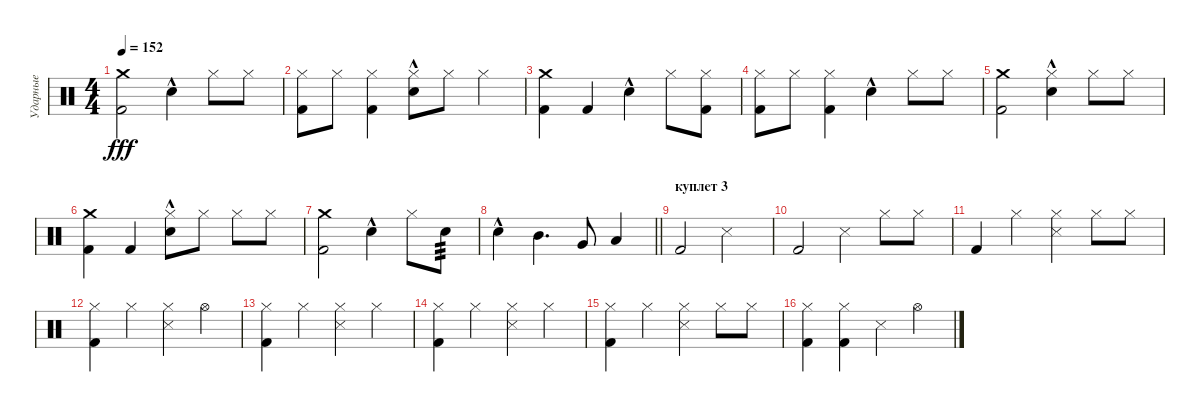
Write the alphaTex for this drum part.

\track ("Ударные" "Ударные") {instrument percussion}
\staff {score}
\articulation defaults
\ts (4 4)
\tempo 152
\clef neutral
\ks c
("Crash medium (hit)" "Kick (hit) 2").2{dy fff} "Electric Snare (hit)"{hac}.4 "Hi-Hat (closed)".8 "Hi-Hat (closed)".8 |
("Hi-Hat (closed)" "Kick (hit) 2").8 "Hi-Hat (closed)".8 ("Hi-Hat (closed)" "Kick (hit) 2").4 ("Hi-Hat (closed)" "Electric Snare (hit)"{hac}).8 "Hi-Hat (closed)".8 "Hi-Hat (closed)".4 |
("Crash medium (hit)" "Kick (hit) 2").4 "Kick (hit) 2".4 "Electric Snare (hit)"{hac}.4 "Hi-Hat (closed)".8 ("Hi-Hat (closed)" "Kick (hit) 2").8 |
("Hi-Hat (closed)" "Kick (hit) 2").8 "Hi-Hat (closed)".8 ("Hi-Hat (closed)" "Kick (hit) 2").4 "Electric Snare (hit)"{hac}.4 "Hi-Hat (closed)".8 "Hi-Hat (closed)".8 |
("Crash medium (hit)" "Kick (hit) 2").2 ("Hi-Hat (closed)" "Electric Snare (hit)"{hac}).4 "Hi-Hat (closed)".8 "Hi-Hat (closed)".8 |
("Crash medium (hit)" "Kick (hit) 2").4 "Kick (hit) 2".4 ("Hi-Hat (closed)" "Electric Snare (hit)"{hac}).8 "Hi-Hat (closed)".8 "Hi-Hat (closed)".8 "Hi-Hat (closed)".8 |
("Crash medium (hit)" "Kick (hit) 2").2 "Electric Snare (hit)"{hac}.4 "Hi-Hat (closed)".8 "Electric Snare (hit)".8{tp 3} |
\barLineRight lightlight "Electric Snare (hit)"{hac}.4 "Mid Tom (hit)".4{d} "Very Low Tom (hit)".8 "Low Floor Tom (hit)".4
|
\section ("" "куплет 3")
"Kick (hit) 2".2 "Snare (side stick) 3".2 |
"Kick (hit) 2".2 "Snare (side stick) 3".4 "Hi-Hat (closed)".8 "Hi-Hat (closed)".8 |
"Kick (hit) 2".4 "Hi-Hat (closed)".4 ("Hi-Hat (closed)" "Snare (side stick) 3").4 "Hi-Hat (closed)".8 "Hi-Hat (closed)".8 |
("Hi-Hat (closed)" "Kick (hit) 2").4 "Hi-Hat (closed)".4 ("Hi-Hat (closed)" "Snare (side stick) 3").4 "Hi-Hat (open)".4 |
("Hi-Hat (closed)" "Kick (hit) 2").4 "Hi-Hat (closed)".4 ("Hi-Hat (closed)" "Snare (side stick) 3").4 "Hi-Hat (closed)".4 |
("Hi-Hat (closed)" "Kick (hit) 2").4 "Hi-Hat (closed)".4 ("Hi-Hat (closed)" "Snare (side stick) 3").4 "Hi-Hat (closed)".4 |
("Hi-Hat (closed)" "Kick (hit) 2").4 "Hi-Hat (closed)".4 ("Hi-Hat (closed)" "Snare (side stick) 3").4 "Hi-Hat (closed)".8 "Hi-Hat (closed)".8 |
("Hi-Hat (closed)" "Kick (hit) 2").4 ("Hi-Hat (closed)" "Kick (hit) 2").4 "Snare (side stick) 3".4 "Hi-Hat (open)".4
